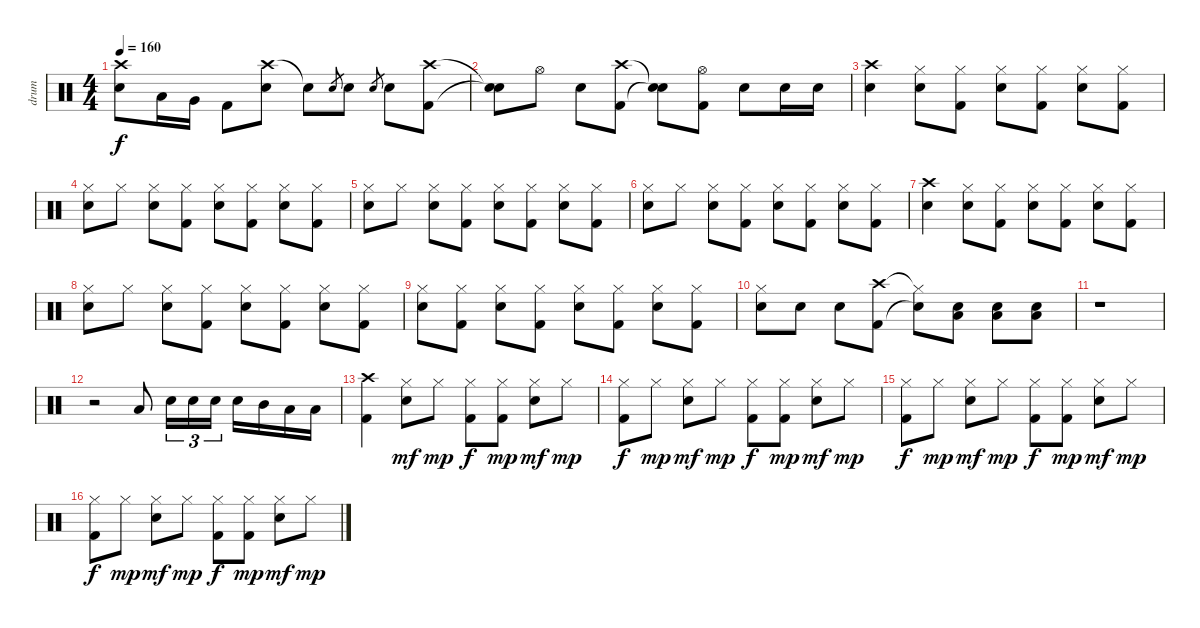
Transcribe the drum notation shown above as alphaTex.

\track ("drum" "drum") {instrument percussion}
\staff {score}
\articulation defaults
\ts (4 4)
\tempo 160
\clef neutral
\ks c
("Crash high (hit)" "Electric Snare (hit)").8{dy f} "Low Tom (hit)".16 "Very Low Tom (hit)".16 "Kick (hit) 2".8 ("Crash high (hit)" "Electric Snare (hit)").8 "Snare (hit)"{t}.8 "Electric Snare (hit)".8{gr} "Electric Snare (hit)".8 "Electric Snare (hit)".8{gr} "Electric Snare (hit)".8 ("Crash high (hit)" "Kick (hit) 2").8 |
("Snare (hit)"{t} "Snare (hit)"{t}).8 "Hi-Hat (open)".8 "Electric Snare (hit)".8 ("Crash high (hit)" "Kick (hit) 2").8 ("Snare (hit)"{t} "Snare (hit)"{t}).8 ("Hi-Hat (open)" "Kick (hit) 2").8 "Electric Snare (hit)".8 "Electric Snare (hit)".16 "Electric Snare (hit)".16 |
("Crash high (hit)" "Electric Snare (hit)").4 ("Hi-Hat (closed)" "Electric Snare (hit)").8 ("Hi-Hat (closed)" "Kick (hit) 2").8 ("Hi-Hat (closed)" "Electric Snare (hit)").8 ("Hi-Hat (closed)" "Kick (hit) 2").8 ("Hi-Hat (closed)" "Electric Snare (hit)").8 ("Hi-Hat (closed)" "Kick (hit) 2").8 |
("Hi-Hat (closed)" "Electric Snare (hit)").8 "Hi-Hat (closed)".8 ("Hi-Hat (closed)" "Electric Snare (hit)").8 ("Hi-Hat (closed)" "Kick (hit) 2").8 ("Hi-Hat (closed)" "Electric Snare (hit)").8 ("Hi-Hat (closed)" "Kick (hit) 2").8 ("Hi-Hat (closed)" "Electric Snare (hit)").8 ("Hi-Hat (closed)" "Kick (hit) 2").8 |
("Hi-Hat (closed)" "Electric Snare (hit)").8 "Hi-Hat (closed)".8 ("Hi-Hat (closed)" "Electric Snare (hit)").8 ("Hi-Hat (closed)" "Kick (hit) 2").8 ("Hi-Hat (closed)" "Electric Snare (hit)").8 ("Hi-Hat (closed)" "Kick (hit) 2").8 ("Hi-Hat (closed)" "Electric Snare (hit)").8 ("Hi-Hat (closed)" "Kick (hit) 2").8 |
("Hi-Hat (closed)" "Electric Snare (hit)").8 "Hi-Hat (closed)".8 ("Hi-Hat (closed)" "Electric Snare (hit)").8 ("Hi-Hat (closed)" "Kick (hit) 2").8 ("Hi-Hat (closed)" "Electric Snare (hit)").8 ("Hi-Hat (closed)" "Kick (hit) 2").8 ("Hi-Hat (closed)" "Electric Snare (hit)").8 ("Hi-Hat (closed)" "Kick (hit) 2").8 |
("Crash high (hit)" "Electric Snare (hit)").4 ("Hi-Hat (closed)" "Electric Snare (hit)").8 ("Hi-Hat (closed)" "Kick (hit) 2").8 ("Hi-Hat (closed)" "Electric Snare (hit)").8 ("Hi-Hat (closed)" "Kick (hit) 2").8 ("Hi-Hat (closed)" "Electric Snare (hit)").8 ("Hi-Hat (closed)" "Kick (hit) 2").8 |
("Hi-Hat (closed)" "Electric Snare (hit)").8 "Hi-Hat (closed)".8 ("Hi-Hat (closed)" "Electric Snare (hit)").8 ("Hi-Hat (closed)" "Kick (hit) 2").8 ("Hi-Hat (closed)" "Electric Snare (hit)").8 ("Hi-Hat (closed)" "Kick (hit) 2").8 ("Hi-Hat (closed)" "Electric Snare (hit)").8 ("Hi-Hat (closed)" "Kick (hit) 2").8 |
("Hi-Hat (closed)" "Electric Snare (hit)").8 ("Hi-Hat (closed)" "Kick (hit) 2").8 ("Hi-Hat (closed)" "Electric Snare (hit)").8 ("Hi-Hat (closed)" "Kick (hit) 2").8 ("Hi-Hat (closed)" "Electric Snare (hit)").8 ("Hi-Hat (closed)" "Kick (hit) 2").8 ("Hi-Hat (closed)" "Electric Snare (hit)").8 ("Hi-Hat (closed)" "Kick (hit) 2").8 |
("Hi-Hat (closed)" "Electric Snare (hit)").8 "Electric Snare (hit)".8 "Electric Snare (hit)".8 ("Crash high (hit)" "Kick (hit) 2").8 ("Hi-Hat (closed)"{t} "Snare (hit)"{t}).8 ("Electric Snare (hit)" "Low Tom (hit)").8 ("Electric Snare (hit)" "Low Tom (hit)").8 ("Electric Snare (hit)" "Low Tom (hit)").8 |
r.1 |
r.2 "Low Tom (hit)".8 "Electric Snare (hit)".16{tu (3 2)} "Electric Snare (hit)".16{tu (3 2)} "Electric Snare (hit)".16{tu (3 2)} "Electric Snare (hit)".16 "Mid Tom (hit)".16 "Low Tom (hit)".16 "Low Tom (hit)".16 |
("Crash high (hit)" "Kick (hit) 2").4 ("Hi-Hat (closed)" "Electric Snare (hit)").8{dy mf} "Hi-Hat (closed)".8{dy mp} ("Hi-Hat (closed)" "Kick (hit) 2").8{dy f} ("Hi-Hat (closed)" "Kick (hit) 2").8{dy mp} ("Hi-Hat (closed)" "Electric Snare (hit)").8{dy mf} "Hi-Hat (closed)".8{dy mp} |
("Hi-Hat (closed)" "Kick (hit) 2").8{dy f} "Hi-Hat (closed)".8{dy mp} ("Hi-Hat (closed)" "Electric Snare (hit)").8{dy mf} "Hi-Hat (closed)".8{dy mp} ("Hi-Hat (closed)" "Kick (hit) 2").8{dy f} ("Hi-Hat (closed)" "Kick (hit) 2").8{dy mp} ("Hi-Hat (closed)" "Electric Snare (hit)").8{dy mf} "Hi-Hat (closed)".8{dy mp} |
("Hi-Hat (closed)" "Kick (hit) 2").8{dy f} "Hi-Hat (closed)".8{dy mp} ("Hi-Hat (closed)" "Electric Snare (hit)").8{dy mf} "Hi-Hat (closed)".8{dy mp} ("Hi-Hat (closed)" "Kick (hit) 2").8{dy f} ("Hi-Hat (closed)" "Kick (hit) 2").8{dy mp} ("Hi-Hat (closed)" "Electric Snare (hit)").8{dy mf} "Hi-Hat (closed)".8{dy mp} |
("Hi-Hat (closed)" "Kick (hit) 2").8{dy f} "Hi-Hat (closed)".8{dy mp} ("Hi-Hat (closed)" "Electric Snare (hit)").8{dy mf} "Hi-Hat (closed)".8{dy mp} ("Hi-Hat (closed)" "Kick (hit) 2").8{dy f} ("Hi-Hat (closed)" "Kick (hit) 2").8{dy mp} ("Hi-Hat (closed)" "Electric Snare (hit)").8{dy mf} "Hi-Hat (closed)".8{dy mp}
